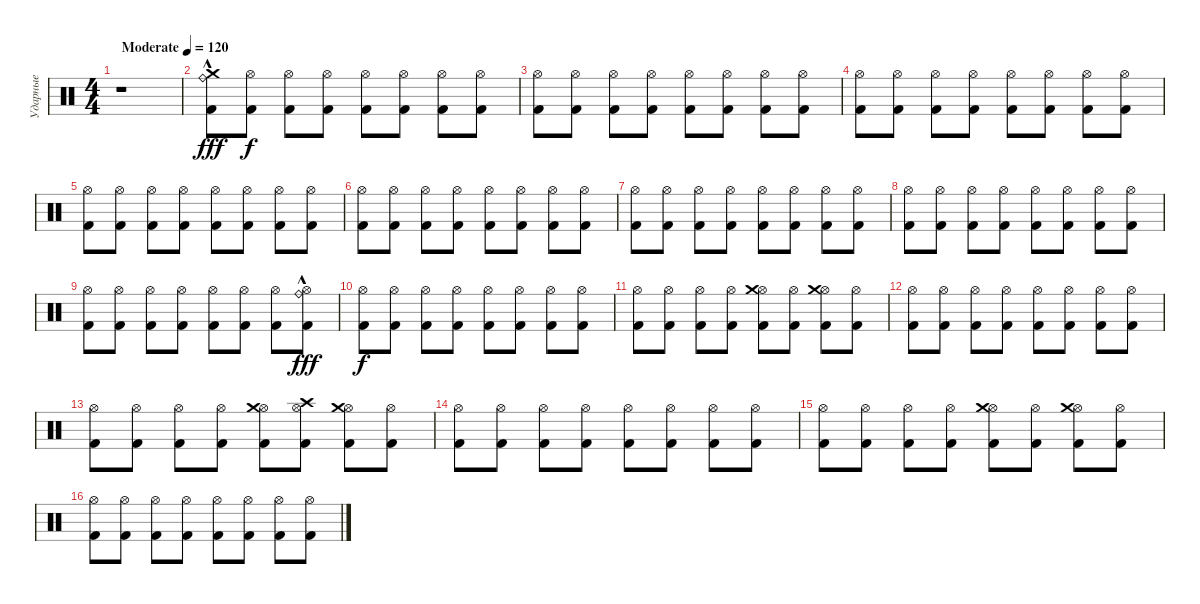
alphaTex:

\track ("Ударные" "Ударные") {instrument percussion}
\staff {score}
\articulation defaults
\ts (4 4)
\tempo (120 "Moderate")
\tempo 160
\tempo (120 "Moderate")
\clef neutral
\ks c
r.1{dy fff} |
("Kick (hit) 2" "Crash medium (hit)" "Ride (bell)"{hac}).8 ("Kick (hit) 2" "Hi-Hat (open)").8{dy f} ("Kick (hit) 2" "Hi-Hat (open)").8 ("Kick (hit) 2" "Hi-Hat (open)").8 ("Kick (hit) 2" "Hi-Hat (open)").8 ("Kick (hit) 2" "Hi-Hat (open)").8 ("Kick (hit) 2" "Hi-Hat (open)").8 ("Kick (hit) 2" "Hi-Hat (open)").8 |
("Kick (hit) 2" "Hi-Hat (open)").8 ("Kick (hit) 2" "Hi-Hat (open)").8 ("Kick (hit) 2" "Hi-Hat (open)").8 ("Kick (hit) 2" "Hi-Hat (open)").8 ("Kick (hit) 2" "Hi-Hat (open)").8 ("Kick (hit) 2" "Hi-Hat (open)").8 ("Kick (hit) 2" "Hi-Hat (open)").8 ("Kick (hit) 2" "Hi-Hat (open)").8 |
("Kick (hit) 2" "Hi-Hat (open)").8 ("Kick (hit) 2" "Hi-Hat (open)").8 ("Kick (hit) 2" "Hi-Hat (open)").8 ("Kick (hit) 2" "Hi-Hat (open)").8 ("Kick (hit) 2" "Hi-Hat (open)").8 ("Kick (hit) 2" "Hi-Hat (open)").8 ("Kick (hit) 2" "Hi-Hat (open)").8 ("Kick (hit) 2" "Hi-Hat (open)").8 |
("Kick (hit) 2" "Hi-Hat (open)").8 ("Kick (hit) 2" "Hi-Hat (open)").8 ("Kick (hit) 2" "Hi-Hat (open)").8 ("Kick (hit) 2" "Hi-Hat (open)").8 ("Kick (hit) 2" "Hi-Hat (open)").8 ("Kick (hit) 2" "Hi-Hat (open)").8 ("Kick (hit) 2" "Hi-Hat (open)").8 ("Kick (hit) 2" "Hi-Hat (open)").8 |
("Kick (hit) 2" "Hi-Hat (open)").8 ("Kick (hit) 2" "Hi-Hat (open)").8 ("Kick (hit) 2" "Hi-Hat (open)").8 ("Kick (hit) 2" "Hi-Hat (open)").8 ("Kick (hit) 2" "Hi-Hat (open)").8 ("Kick (hit) 2" "Hi-Hat (open)").8 ("Kick (hit) 2" "Hi-Hat (open)").8 ("Kick (hit) 2" "Hi-Hat (open)").8 |
("Kick (hit) 2" "Hi-Hat (open)").8 ("Kick (hit) 2" "Hi-Hat (open)").8 ("Kick (hit) 2" "Hi-Hat (open)").8 ("Kick (hit) 2" "Hi-Hat (open)").8 ("Kick (hit) 2" "Hi-Hat (open)").8 ("Kick (hit) 2" "Hi-Hat (open)").8 ("Kick (hit) 2" "Hi-Hat (open)").8 ("Kick (hit) 2" "Hi-Hat (open)").8 |
("Kick (hit) 2" "Hi-Hat (open)").8 ("Kick (hit) 2" "Hi-Hat (open)").8 ("Kick (hit) 2" "Hi-Hat (open)").8 ("Kick (hit) 2" "Hi-Hat (open)").8 ("Kick (hit) 2" "Hi-Hat (open)").8 ("Kick (hit) 2" "Hi-Hat (open)").8 ("Kick (hit) 2" "Hi-Hat (open)").8 ("Kick (hit) 2" "Hi-Hat (open)").8 |
("Kick (hit) 2" "Hi-Hat (open)").8 ("Kick (hit) 2" "Hi-Hat (open)").8 ("Kick (hit) 2" "Hi-Hat (open)").8 ("Kick (hit) 2" "Hi-Hat (open)").8 ("Kick (hit) 2" "Hi-Hat (open)").8 ("Kick (hit) 2" "Hi-Hat (open)").8 ("Kick (hit) 2" "Hi-Hat (open)").8 ("Kick (hit) 2" "Hi-Hat (open)" "Ride (bell)"{hac}).8{dy fff} |
("Kick (hit) 2" "Hi-Hat (open)").8{dy f} ("Kick (hit) 2" "Hi-Hat (open)").8 ("Kick (hit) 2" "Hi-Hat (open)").8 ("Kick (hit) 2" "Hi-Hat (open)").8 ("Kick (hit) 2" "Hi-Hat (open)").8 ("Kick (hit) 2" "Hi-Hat (open)").8 ("Kick (hit) 2" "Hi-Hat (open)").8 ("Kick (hit) 2" "Hi-Hat (open)").8 |
("Kick (hit) 2" "Hi-Hat (open)").8 ("Kick (hit) 2" "Hi-Hat (open)").8 ("Kick (hit) 2" "Hi-Hat (open)").8 ("Kick (hit) 2" "Hi-Hat (open)").8 ("Kick (hit) 2" "Hi-Hat (open)" "Crash medium (hit)").8 ("Kick (hit) 2" "Hi-Hat (open)").8 ("Kick (hit) 2" "Hi-Hat (open)" "Crash medium (hit)").8 ("Kick (hit) 2" "Hi-Hat (open)").8 |
("Kick (hit) 2" "Hi-Hat (open)").8 ("Kick (hit) 2" "Hi-Hat (open)").8 ("Kick (hit) 2" "Hi-Hat (open)").8 ("Kick (hit) 2" "Hi-Hat (open)").8 ("Kick (hit) 2" "Hi-Hat (open)").8 ("Kick (hit) 2" "Hi-Hat (open)").8 ("Kick (hit) 2" "Hi-Hat (open)").8 ("Kick (hit) 2" "Hi-Hat (open)").8 |
("Kick (hit) 2" "Hi-Hat (open)").8 ("Kick (hit) 2" "Hi-Hat (open)").8 ("Kick (hit) 2" "Hi-Hat (open)").8 ("Kick (hit) 2" "Hi-Hat (open)").8 ("Kick (hit) 2" "Hi-Hat (open)" "Crash medium (hit)").8 ("Kick (hit) 2" "Hi-Hat (open)" "Crash high (hit)").8 ("Kick (hit) 2" "Hi-Hat (open)" "Crash medium (hit)").8 ("Kick (hit) 2" "Hi-Hat (open)").8 |
("Kick (hit) 2" "Hi-Hat (open)").8 ("Kick (hit) 2" "Hi-Hat (open)").8 ("Kick (hit) 2" "Hi-Hat (open)").8 ("Kick (hit) 2" "Hi-Hat (open)").8 ("Kick (hit) 2" "Hi-Hat (open)").8 ("Kick (hit) 2" "Hi-Hat (open)").8 ("Kick (hit) 2" "Hi-Hat (open)").8 ("Kick (hit) 2" "Hi-Hat (open)").8 |
("Kick (hit) 2" "Hi-Hat (open)").8 ("Kick (hit) 2" "Hi-Hat (open)").8 ("Kick (hit) 2" "Hi-Hat (open)").8 ("Kick (hit) 2" "Hi-Hat (open)").8 ("Kick (hit) 2" "Hi-Hat (open)" "Crash medium (hit)").8 ("Kick (hit) 2" "Hi-Hat (open)").8 ("Kick (hit) 2" "Hi-Hat (open)" "Crash medium (hit)").8 ("Kick (hit) 2" "Hi-Hat (open)").8 |
("Kick (hit) 2" "Hi-Hat (open)").8 ("Kick (hit) 2" "Hi-Hat (open)").8 ("Kick (hit) 2" "Hi-Hat (open)").8 ("Kick (hit) 2" "Hi-Hat (open)").8 ("Kick (hit) 2" "Hi-Hat (open)").8 ("Kick (hit) 2" "Hi-Hat (open)").8 ("Kick (hit) 2" "Hi-Hat (open)").8 ("Kick (hit) 2" "Hi-Hat (open)").8
